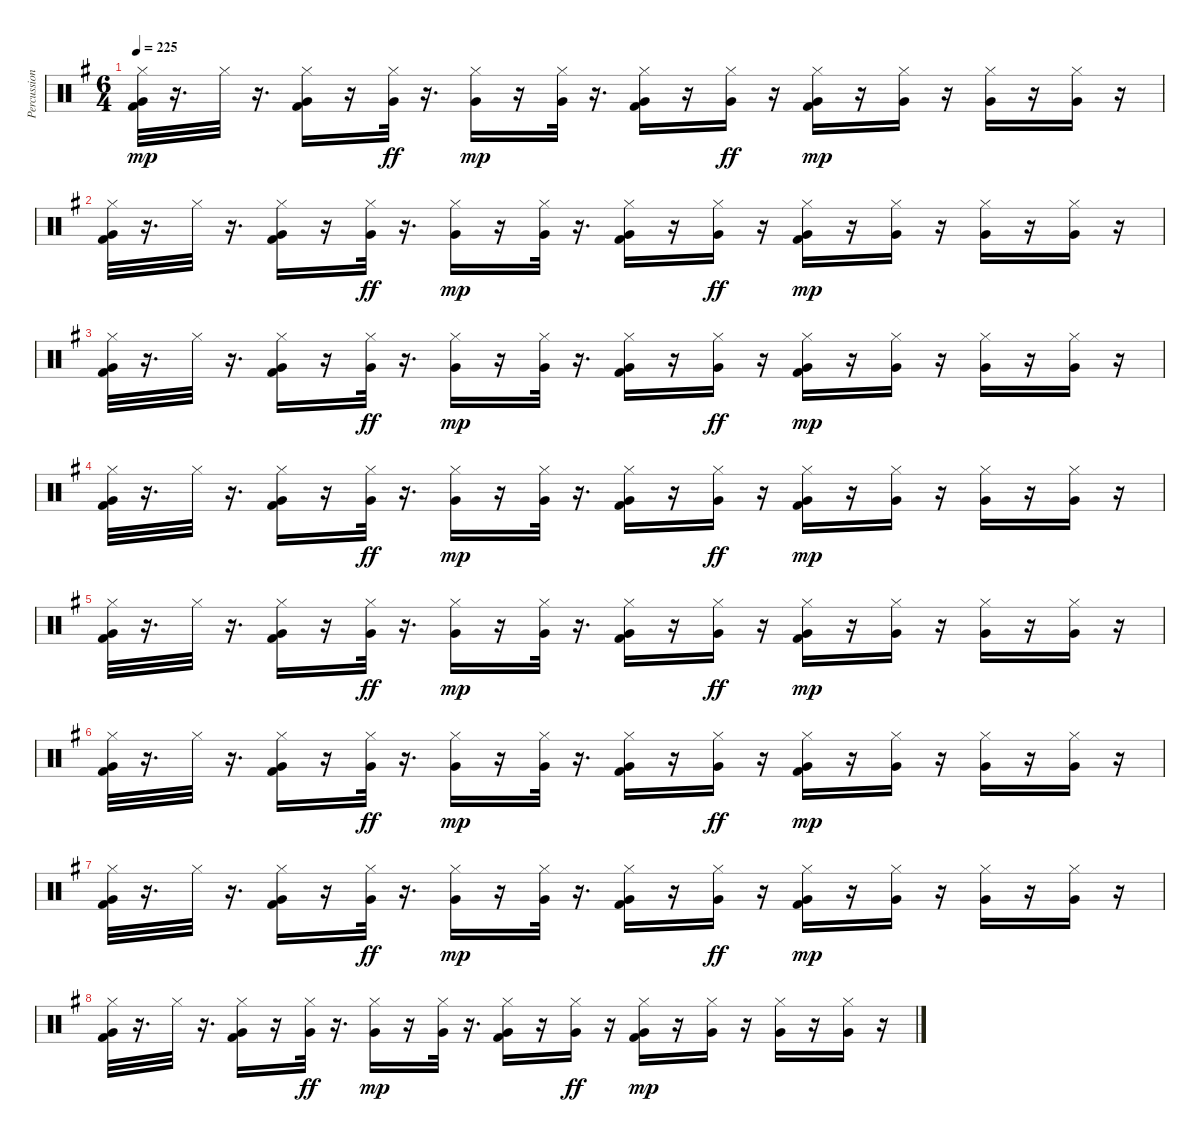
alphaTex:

\track ("Percussion" "Percussion") {instrument percussion}
\staff {score}
\articulation defaults
\ts (6 4)
\tempo 225
\clef neutral
\ks eminor
("Hi-Hat (closed)" "Very Low Tom (hit)" "Kick (hit) 2").32{dy mp} r.16{d} "Hi-Hat (closed)".32 r.16{d} ("Hi-Hat (closed)" "Very Low Tom (hit)" "Kick (hit) 2").16 r.16 ("Hi-Hat (closed)" "Very Low Tom (hit)").32{dy ff} r.16{d} ("Hi-Hat (closed)" "Very Low Tom (hit)").16{dy mp} r.16 ("Hi-Hat (closed)" "Very Low Tom (hit)").32 r.16{d} ("Hi-Hat (closed)" "Very Low Tom (hit)" "Kick (hit) 2").16 r.16 ("Hi-Hat (closed)" "Very Low Tom (hit)").16{dy ff} r.16 ("Hi-Hat (closed)" "Very Low Tom (hit)" "Kick (hit) 2").16{dy mp} r.16 ("Hi-Hat (closed)" "Very Low Tom (hit)").16 r.16 ("Hi-Hat (closed)" "Very Low Tom (hit)").16 r.16 ("Hi-Hat (closed)" "Very Low Tom (hit)").16 r.16 |
("Hi-Hat (closed)" "Very Low Tom (hit)" "Kick (hit) 2").32 r.16{d} "Hi-Hat (closed)".32 r.16{d} ("Hi-Hat (closed)" "Very Low Tom (hit)" "Kick (hit) 2").16 r.16 ("Hi-Hat (closed)" "Very Low Tom (hit)").32{dy ff} r.16{d} ("Hi-Hat (closed)" "Very Low Tom (hit)").16{dy mp} r.16 ("Hi-Hat (closed)" "Very Low Tom (hit)").32 r.16{d} ("Hi-Hat (closed)" "Very Low Tom (hit)" "Kick (hit) 2").16 r.16 ("Hi-Hat (closed)" "Very Low Tom (hit)").16{dy ff} r.16 ("Hi-Hat (closed)" "Very Low Tom (hit)" "Kick (hit) 2").16{dy mp} r.16 ("Hi-Hat (closed)" "Very Low Tom (hit)").16 r.16 ("Hi-Hat (closed)" "Very Low Tom (hit)").16 r.16 ("Hi-Hat (closed)" "Very Low Tom (hit)").16 r.16 |
("Hi-Hat (closed)" "Very Low Tom (hit)" "Kick (hit) 2").32 r.16{d} "Hi-Hat (closed)".32 r.16{d} ("Hi-Hat (closed)" "Very Low Tom (hit)" "Kick (hit) 2").16 r.16 ("Hi-Hat (closed)" "Very Low Tom (hit)").32{dy ff} r.16{d} ("Hi-Hat (closed)" "Very Low Tom (hit)").16{dy mp} r.16 ("Hi-Hat (closed)" "Very Low Tom (hit)").32 r.16{d} ("Hi-Hat (closed)" "Very Low Tom (hit)" "Kick (hit) 2").16 r.16 ("Hi-Hat (closed)" "Very Low Tom (hit)").16{dy ff} r.16 ("Hi-Hat (closed)" "Very Low Tom (hit)" "Kick (hit) 2").16{dy mp} r.16 ("Hi-Hat (closed)" "Very Low Tom (hit)").16 r.16 ("Hi-Hat (closed)" "Very Low Tom (hit)").16 r.16 ("Hi-Hat (closed)" "Very Low Tom (hit)").16 r.16 |
("Hi-Hat (closed)" "Very Low Tom (hit)" "Kick (hit) 2").32 r.16{d} "Hi-Hat (closed)".32 r.16{d} ("Hi-Hat (closed)" "Very Low Tom (hit)" "Kick (hit) 2").16 r.16 ("Hi-Hat (closed)" "Very Low Tom (hit)").32{dy ff} r.16{d} ("Hi-Hat (closed)" "Very Low Tom (hit)").16{dy mp} r.16 ("Hi-Hat (closed)" "Very Low Tom (hit)").32 r.16{d} ("Hi-Hat (closed)" "Very Low Tom (hit)" "Kick (hit) 2").16 r.16 ("Hi-Hat (closed)" "Very Low Tom (hit)").16{dy ff} r.16 ("Hi-Hat (closed)" "Very Low Tom (hit)" "Kick (hit) 2").16{dy mp} r.16 ("Hi-Hat (closed)" "Very Low Tom (hit)").16 r.16 ("Hi-Hat (closed)" "Very Low Tom (hit)").16 r.16 ("Hi-Hat (closed)" "Very Low Tom (hit)").16 r.16 |
("Hi-Hat (closed)" "Very Low Tom (hit)" "Kick (hit) 2").32 r.16{d} "Hi-Hat (closed)".32 r.16{d} ("Hi-Hat (closed)" "Very Low Tom (hit)" "Kick (hit) 2").16 r.16 ("Hi-Hat (closed)" "Very Low Tom (hit)").32{dy ff} r.16{d} ("Hi-Hat (closed)" "Very Low Tom (hit)").16{dy mp} r.16 ("Hi-Hat (closed)" "Very Low Tom (hit)").32 r.16{d} ("Hi-Hat (closed)" "Very Low Tom (hit)" "Kick (hit) 2").16 r.16 ("Hi-Hat (closed)" "Very Low Tom (hit)").16{dy ff} r.16 ("Hi-Hat (closed)" "Very Low Tom (hit)" "Kick (hit) 2").16{dy mp} r.16 ("Hi-Hat (closed)" "Very Low Tom (hit)").16 r.16 ("Hi-Hat (closed)" "Very Low Tom (hit)").16 r.16 ("Hi-Hat (closed)" "Very Low Tom (hit)").16 r.16 |
("Hi-Hat (closed)" "Very Low Tom (hit)" "Kick (hit) 2").32 r.16{d} "Hi-Hat (closed)".32 r.16{d} ("Hi-Hat (closed)" "Very Low Tom (hit)" "Kick (hit) 2").16 r.16 ("Hi-Hat (closed)" "Very Low Tom (hit)").32{dy ff} r.16{d} ("Hi-Hat (closed)" "Very Low Tom (hit)").16{dy mp} r.16 ("Hi-Hat (closed)" "Very Low Tom (hit)").32 r.16{d} ("Hi-Hat (closed)" "Very Low Tom (hit)" "Kick (hit) 2").16 r.16 ("Hi-Hat (closed)" "Very Low Tom (hit)").16{dy ff} r.16 ("Hi-Hat (closed)" "Very Low Tom (hit)" "Kick (hit) 2").16{dy mp} r.16 ("Hi-Hat (closed)" "Very Low Tom (hit)").16 r.16 ("Hi-Hat (closed)" "Very Low Tom (hit)").16 r.16 ("Hi-Hat (closed)" "Very Low Tom (hit)").16 r.16 |
("Hi-Hat (closed)" "Very Low Tom (hit)" "Kick (hit) 2").32 r.16{d} "Hi-Hat (closed)".32 r.16{d} ("Hi-Hat (closed)" "Very Low Tom (hit)" "Kick (hit) 2").16 r.16 ("Hi-Hat (closed)" "Very Low Tom (hit)").32{dy ff} r.16{d} ("Hi-Hat (closed)" "Very Low Tom (hit)").16{dy mp} r.16 ("Hi-Hat (closed)" "Very Low Tom (hit)").32 r.16{d} ("Hi-Hat (closed)" "Very Low Tom (hit)" "Kick (hit) 2").16 r.16 ("Hi-Hat (closed)" "Very Low Tom (hit)").16{dy ff} r.16 ("Hi-Hat (closed)" "Very Low Tom (hit)" "Kick (hit) 2").16{dy mp} r.16 ("Hi-Hat (closed)" "Very Low Tom (hit)").16 r.16 ("Hi-Hat (closed)" "Very Low Tom (hit)").16 r.16 ("Hi-Hat (closed)" "Very Low Tom (hit)").16 r.16 |
("Hi-Hat (closed)" "Very Low Tom (hit)" "Kick (hit) 2").32 r.16{d} "Hi-Hat (closed)".32 r.16{d} ("Hi-Hat (closed)" "Very Low Tom (hit)" "Kick (hit) 2").16 r.16 ("Hi-Hat (closed)" "Very Low Tom (hit)").32{dy ff} r.16{d} ("Hi-Hat (closed)" "Very Low Tom (hit)").16{dy mp} r.16 ("Hi-Hat (closed)" "Very Low Tom (hit)").32 r.16{d} ("Hi-Hat (closed)" "Very Low Tom (hit)" "Kick (hit) 2").16 r.16 ("Hi-Hat (closed)" "Very Low Tom (hit)").16{dy ff} r.16 ("Hi-Hat (closed)" "Very Low Tom (hit)" "Kick (hit) 2").16{dy mp} r.16 ("Hi-Hat (closed)" "Very Low Tom (hit)").16 r.16 ("Hi-Hat (closed)" "Very Low Tom (hit)").16 r.16 ("Hi-Hat (closed)" "Very Low Tom (hit)").16 r.16
